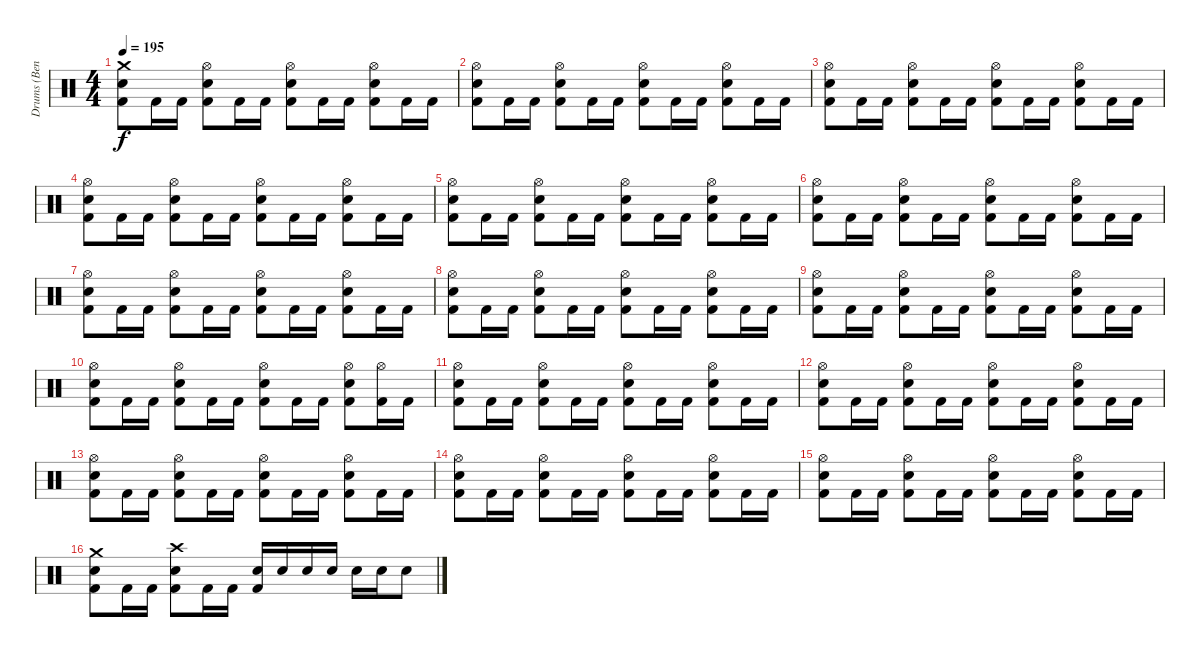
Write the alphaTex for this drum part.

\track ("Drums (Ben)" "Drums (Ben") {instrument percussion}
\staff {score}
\articulation defaults
\ts (4 4)
\tempo 195
\clef neutral
\ks c
("Crash medium (hit)" "Snare (hit) 2" "Kick (hit) 2").8{dy f} "Kick (hit) 2".16 "Kick (hit) 2".16 ("Hi-Hat (open)" "Snare (hit) 2" "Kick (hit) 2").8 "Kick (hit) 2".16 "Kick (hit) 2".16 ("Hi-Hat (open)" "Snare (hit) 2" "Kick (hit) 2").8 "Kick (hit) 2".16 "Kick (hit) 2".16 ("Hi-Hat (open)" "Snare (hit) 2" "Kick (hit) 2").8 "Kick (hit) 2".16 "Kick (hit) 2".16 |
("Hi-Hat (open)" "Snare (hit) 2" "Kick (hit) 2").8 "Kick (hit) 2".16 "Kick (hit) 2".16 ("Hi-Hat (open)" "Snare (hit) 2" "Kick (hit) 2").8 "Kick (hit) 2".16 "Kick (hit) 2".16 ("Hi-Hat (open)" "Snare (hit) 2" "Kick (hit) 2").8 "Kick (hit) 2".16 "Kick (hit) 2".16 ("Hi-Hat (open)" "Snare (hit) 2" "Kick (hit) 2").8 "Kick (hit) 2".16 "Kick (hit) 2".16 |
("Hi-Hat (open)" "Snare (hit) 2" "Kick (hit) 2").8 "Kick (hit) 2".16 "Kick (hit) 2".16 ("Hi-Hat (open)" "Snare (hit) 2" "Kick (hit) 2").8 "Kick (hit) 2".16 "Kick (hit) 2".16 ("Hi-Hat (open)" "Snare (hit) 2" "Kick (hit) 2").8 "Kick (hit) 2".16 "Kick (hit) 2".16 ("Hi-Hat (open)" "Snare (hit) 2" "Kick (hit) 2").8 "Kick (hit) 2".16 "Kick (hit) 2".16 |
("Hi-Hat (open)" "Snare (hit) 2" "Kick (hit) 2").8 "Kick (hit) 2".16 "Kick (hit) 2".16 ("Hi-Hat (open)" "Snare (hit) 2" "Kick (hit) 2").8 "Kick (hit) 2".16 "Kick (hit) 2".16 ("Hi-Hat (open)" "Snare (hit) 2" "Kick (hit) 2").8 "Kick (hit) 2".16 "Kick (hit) 2".16 ("Hi-Hat (open)" "Snare (hit) 2" "Kick (hit) 2").8 "Kick (hit) 2".16 "Kick (hit) 2".16 |
("Hi-Hat (open)" "Snare (hit) 2" "Kick (hit) 2").8 "Kick (hit) 2".16 "Kick (hit) 2".16 ("Hi-Hat (open)" "Snare (hit) 2" "Kick (hit) 2").8 "Kick (hit) 2".16 "Kick (hit) 2".16 ("Hi-Hat (open)" "Snare (hit) 2" "Kick (hit) 2").8 "Kick (hit) 2".16 "Kick (hit) 2".16 ("Hi-Hat (open)" "Snare (hit) 2" "Kick (hit) 2").8 "Kick (hit) 2".16 "Kick (hit) 2".16 |
("Hi-Hat (open)" "Snare (hit) 2" "Kick (hit) 2").8 "Kick (hit) 2".16 "Kick (hit) 2".16 ("Hi-Hat (open)" "Snare (hit) 2" "Kick (hit) 2").8 "Kick (hit) 2".16 "Kick (hit) 2".16 ("Hi-Hat (open)" "Snare (hit) 2" "Kick (hit) 2").8 "Kick (hit) 2".16 "Kick (hit) 2".16 ("Hi-Hat (open)" "Snare (hit) 2" "Kick (hit) 2").8 "Kick (hit) 2".16 "Kick (hit) 2".16 |
("Hi-Hat (open)" "Snare (hit) 2" "Kick (hit) 2").8 "Kick (hit) 2".16 "Kick (hit) 2".16 ("Hi-Hat (open)" "Snare (hit) 2" "Kick (hit) 2").8 "Kick (hit) 2".16 "Kick (hit) 2".16 ("Hi-Hat (open)" "Snare (hit) 2" "Kick (hit) 2").8 "Kick (hit) 2".16 "Kick (hit) 2".16 ("Hi-Hat (open)" "Snare (hit) 2" "Kick (hit) 2").8 "Kick (hit) 2".16 "Kick (hit) 2".16 |
("Hi-Hat (open)" "Snare (hit) 2" "Kick (hit) 2").8 "Kick (hit) 2".16 "Kick (hit) 2".16 ("Hi-Hat (open)" "Snare (hit) 2" "Kick (hit) 2").8 "Kick (hit) 2".16 "Kick (hit) 2".16 ("Hi-Hat (open)" "Snare (hit) 2" "Kick (hit) 2").8 "Kick (hit) 2".16 "Kick (hit) 2".16 ("Hi-Hat (open)" "Snare (hit) 2" "Kick (hit) 2").8 "Kick (hit) 2".16 "Kick (hit) 2".16 |
("Hi-Hat (open)" "Snare (hit) 2" "Kick (hit) 2").8 "Kick (hit) 2".16 "Kick (hit) 2".16 ("Hi-Hat (open)" "Snare (hit) 2" "Kick (hit) 2").8 "Kick (hit) 2".16 "Kick (hit) 2".16 ("Hi-Hat (open)" "Snare (hit) 2" "Kick (hit) 2").8 "Kick (hit) 2".16 "Kick (hit) 2".16 ("Hi-Hat (open)" "Snare (hit) 2" "Kick (hit) 2").8 "Kick (hit) 2".16 "Kick (hit) 2".16 |
("Hi-Hat (open)" "Snare (hit) 2" "Kick (hit) 2").8 "Kick (hit) 2".16 "Kick (hit) 2".16 ("Hi-Hat (open)" "Snare (hit) 2" "Kick (hit) 2").8 "Kick (hit) 2".16 "Kick (hit) 2".16 ("Hi-Hat (open)" "Snare (hit) 2" "Kick (hit) 2").8 "Kick (hit) 2".16 "Kick (hit) 2".16 ("Hi-Hat (open)" "Snare (hit) 2" "Kick (hit) 2").8 ("Hi-Hat (open)" "Kick (hit) 2").16 "Kick (hit) 2".16 |
("Hi-Hat (open)" "Snare (hit) 2" "Kick (hit) 2").8 "Kick (hit) 2".16 "Kick (hit) 2".16 ("Hi-Hat (open)" "Snare (hit) 2" "Kick (hit) 2").8 "Kick (hit) 2".16 "Kick (hit) 2".16 ("Hi-Hat (open)" "Snare (hit) 2" "Kick (hit) 2").8 "Kick (hit) 2".16 "Kick (hit) 2".16 ("Hi-Hat (open)" "Snare (hit) 2" "Kick (hit) 2").8 "Kick (hit) 2".16 "Kick (hit) 2".16 |
("Hi-Hat (open)" "Snare (hit) 2" "Kick (hit) 2").8 "Kick (hit) 2".16 "Kick (hit) 2".16 ("Hi-Hat (open)" "Snare (hit) 2" "Kick (hit) 2").8 "Kick (hit) 2".16 "Kick (hit) 2".16 ("Hi-Hat (open)" "Snare (hit) 2" "Kick (hit) 2").8 "Kick (hit) 2".16 "Kick (hit) 2".16 ("Hi-Hat (open)" "Snare (hit) 2" "Kick (hit) 2").8 "Kick (hit) 2".16 "Kick (hit) 2".16 |
("Hi-Hat (open)" "Snare (hit) 2" "Kick (hit) 2").8 "Kick (hit) 2".16 "Kick (hit) 2".16 ("Hi-Hat (open)" "Snare (hit) 2" "Kick (hit) 2").8 "Kick (hit) 2".16 "Kick (hit) 2".16 ("Hi-Hat (open)" "Snare (hit) 2" "Kick (hit) 2").8 "Kick (hit) 2".16 "Kick (hit) 2".16 ("Hi-Hat (open)" "Snare (hit) 2" "Kick (hit) 2").8 "Kick (hit) 2".16 "Kick (hit) 2".16 |
("Hi-Hat (open)" "Snare (hit) 2" "Kick (hit) 2").8 "Kick (hit) 2".16 "Kick (hit) 2".16 ("Hi-Hat (open)" "Snare (hit) 2" "Kick (hit) 2").8 "Kick (hit) 2".16 "Kick (hit) 2".16 ("Hi-Hat (open)" "Snare (hit) 2" "Kick (hit) 2").8 "Kick (hit) 2".16 "Kick (hit) 2".16 ("Hi-Hat (open)" "Snare (hit) 2" "Kick (hit) 2").8 "Kick (hit) 2".16 "Kick (hit) 2".16 |
("Hi-Hat (open)" "Snare (hit) 2" "Kick (hit) 2").8 "Kick (hit) 2".16 "Kick (hit) 2".16 ("Hi-Hat (open)" "Snare (hit) 2" "Kick (hit) 2").8 "Kick (hit) 2".16 "Kick (hit) 2".16 ("Hi-Hat (open)" "Snare (hit) 2" "Kick (hit) 2").8 "Kick (hit) 2".16 "Kick (hit) 2".16 ("Hi-Hat (open)" "Snare (hit) 2" "Kick (hit) 2").8 "Kick (hit) 2".16 "Kick (hit) 2".16 |
("Crash medium (hit)" "Snare (hit) 2" "Kick (hit) 2").8 "Kick (hit) 2".16 "Kick (hit) 2".16 ("Crash high (hit)" "Snare (hit) 2" "Kick (hit) 2").8 "Kick (hit) 2".16 "Kick (hit) 2".16 ("Snare (hit) 2" "Kick (hit) 2").16 "Snare (hit) 2".16 "Snare (hit) 2".16 "Snare (hit) 2".16 "Snare (hit) 2".16 "Snare (hit) 2".16 "Snare (hit) 2".8
